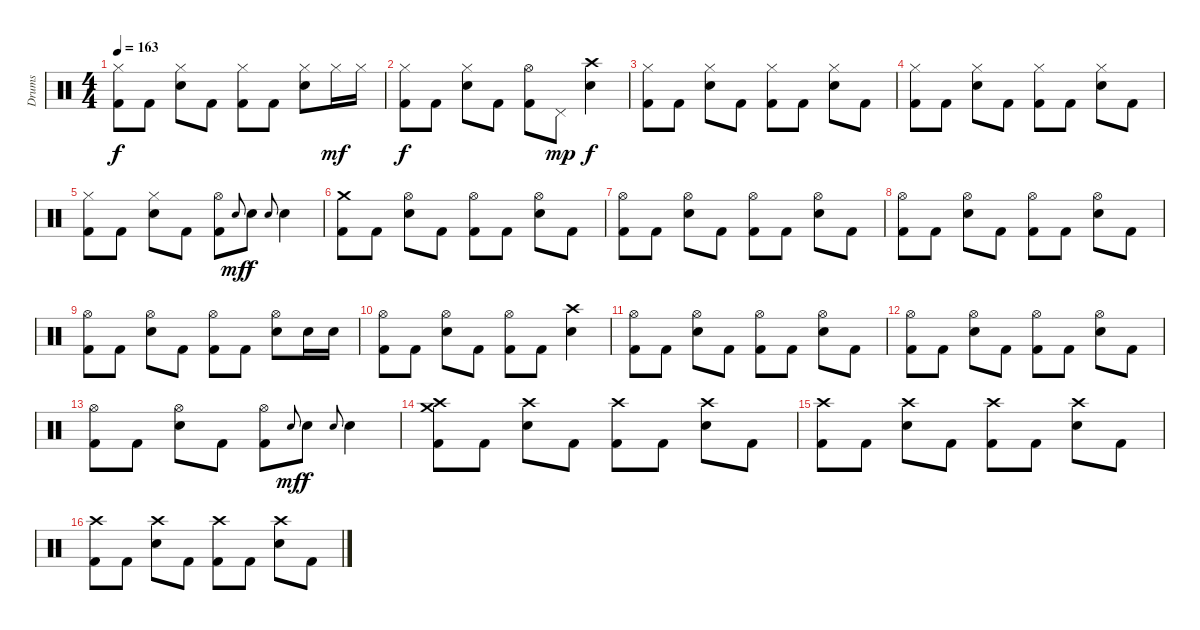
\track ("Drums" "Drums") {instrument percussion}
\staff {score}
\articulation defaults
\ts (4 4)
\tempo 163
\clef neutral
\ks c
("Hi-Hat (closed)" "Kick (hit) 2").8{dy f} "Kick (hit) 2".8 ("Hi-Hat (closed)" "Electric Snare (hit)").8 "Kick (hit) 2".8 ("Hi-Hat (closed)" "Kick (hit) 2").8 "Kick (hit) 2".8 ("Hi-Hat (closed)" "Electric Snare (hit)").8 "Hi-Hat (closed)".16{dy mf} "Hi-Hat (closed)".16 |
("Hi-Hat (closed)" "Kick (hit) 2").8{dy f} "Kick (hit) 2".8 ("Hi-Hat (closed)" "Electric Snare (hit)").8 "Kick (hit) 2".8 ("Hi-Hat (open)" "Kick (hit) 2").8 "Pedal Hi-Hat (hit)".8{dy mp} ("Crash high (hit)" "Electric Snare (hit)").4{dy f} |
("Hi-Hat (closed)" "Kick (hit) 2").8 "Kick (hit) 2".8 ("Hi-Hat (closed)" "Electric Snare (hit)").8 "Kick (hit) 2".8 ("Hi-Hat (closed)" "Kick (hit) 2").8 "Kick (hit) 2".8 ("Hi-Hat (closed)" "Electric Snare (hit)").8 "Kick (hit) 2".8 |
("Hi-Hat (closed)" "Kick (hit) 2").8 "Kick (hit) 2".8 ("Hi-Hat (closed)" "Electric Snare (hit)").8 "Kick (hit) 2".8 ("Hi-Hat (closed)" "Kick (hit) 2").8 "Kick (hit) 2".8 ("Hi-Hat (closed)" "Electric Snare (hit)").8 "Kick (hit) 2".8 |
("Hi-Hat (closed)" "Kick (hit) 2").8 "Kick (hit) 2".8 ("Hi-Hat (closed)" "Electric Snare (hit)").8 "Kick (hit) 2".8 ("Hi-Hat (open)" "Kick (hit) 2").8 "Electric Snare (hit)".8{gr onbeat dy mf} "Electric Snare (hit)".8{dy f} "Electric Snare (hit)".8{gr onbeat} "Electric Snare (hit)".4 |
("Crash medium (hit)" "Kick (hit) 2").8 "Kick (hit) 2".8 ("Hi-Hat (open)" "Electric Snare (hit)").8 "Kick (hit) 2".8 ("Hi-Hat (open)" "Kick (hit) 2").8 "Kick (hit) 2".8 ("Hi-Hat (open)" "Electric Snare (hit)").8 "Kick (hit) 2".8 |
("Hi-Hat (open)" "Kick (hit) 2").8 "Kick (hit) 2".8 ("Hi-Hat (open)" "Electric Snare (hit)").8 "Kick (hit) 2".8 ("Hi-Hat (open)" "Kick (hit) 2").8 "Kick (hit) 2".8 ("Hi-Hat (open)" "Electric Snare (hit)").8 "Kick (hit) 2".8 |
("Hi-Hat (open)" "Kick (hit) 2").8 "Kick (hit) 2".8 ("Hi-Hat (open)" "Electric Snare (hit)").8 "Kick (hit) 2".8 ("Hi-Hat (open)" "Kick (hit) 2").8 "Kick (hit) 2".8 ("Hi-Hat (open)" "Electric Snare (hit)").8 "Kick (hit) 2".8 |
("Hi-Hat (open)" "Kick (hit) 2").8 "Kick (hit) 2".8 ("Hi-Hat (open)" "Electric Snare (hit)").8 "Kick (hit) 2".8 ("Hi-Hat (open)" "Kick (hit) 2").8 "Kick (hit) 2".8 ("Hi-Hat (open)" "Electric Snare (hit)").8 "Electric Snare (hit)".16 "Electric Snare (hit)".16 |
("Hi-Hat (open)" "Kick (hit) 2").8 "Kick (hit) 2".8 ("Hi-Hat (open)" "Electric Snare (hit)").8 "Kick (hit) 2".8 ("Hi-Hat (open)" "Kick (hit) 2").8 "Kick (hit) 2".8 ("Crash high (hit)" "Electric Snare (hit)").4 |
("Hi-Hat (open)" "Kick (hit) 2").8 "Kick (hit) 2".8 ("Hi-Hat (open)" "Electric Snare (hit)").8 "Kick (hit) 2".8 ("Hi-Hat (open)" "Kick (hit) 2").8 "Kick (hit) 2".8 ("Hi-Hat (open)" "Electric Snare (hit)").8 "Kick (hit) 2".8 |
("Hi-Hat (open)" "Kick (hit) 2").8 "Kick (hit) 2".8 ("Hi-Hat (open)" "Electric Snare (hit)").8 "Kick (hit) 2".8 ("Hi-Hat (open)" "Kick (hit) 2").8 "Kick (hit) 2".8 ("Hi-Hat (open)" "Electric Snare (hit)").8 "Kick (hit) 2".8 |
("Hi-Hat (open)" "Kick (hit) 2").8 "Kick (hit) 2".8 ("Hi-Hat (open)" "Electric Snare (hit)").8 "Kick (hit) 2".8 ("Hi-Hat (open)" "Kick (hit) 2").8 "Electric Snare (hit)".8{gr onbeat dy mf} "Electric Snare (hit)".8{dy f} "Electric Snare (hit)".8{gr onbeat} "Electric Snare (hit)".4 |
("Crash high (hit)" "Crash medium (hit)" "Kick (hit) 2").8 "Kick (hit) 2".8 ("Crash high (hit)" "Electric Snare (hit)").8 "Kick (hit) 2".8 ("Crash high (hit)" "Kick (hit) 2").8 "Kick (hit) 2".8 ("Crash high (hit)" "Electric Snare (hit)").8 "Kick (hit) 2".8 |
("Crash high (hit)" "Kick (hit) 2").8 "Kick (hit) 2".8 ("Crash high (hit)" "Electric Snare (hit)").8 "Kick (hit) 2".8 ("Crash high (hit)" "Kick (hit) 2").8 "Kick (hit) 2".8 ("Crash high (hit)" "Electric Snare (hit)").8 "Kick (hit) 2".8 |
("Crash high (hit)" "Kick (hit) 2").8 "Kick (hit) 2".8 ("Crash high (hit)" "Electric Snare (hit)").8 "Kick (hit) 2".8 ("Crash high (hit)" "Kick (hit) 2").8 "Kick (hit) 2".8 ("Crash high (hit)" "Electric Snare (hit)").8 "Kick (hit) 2".8
